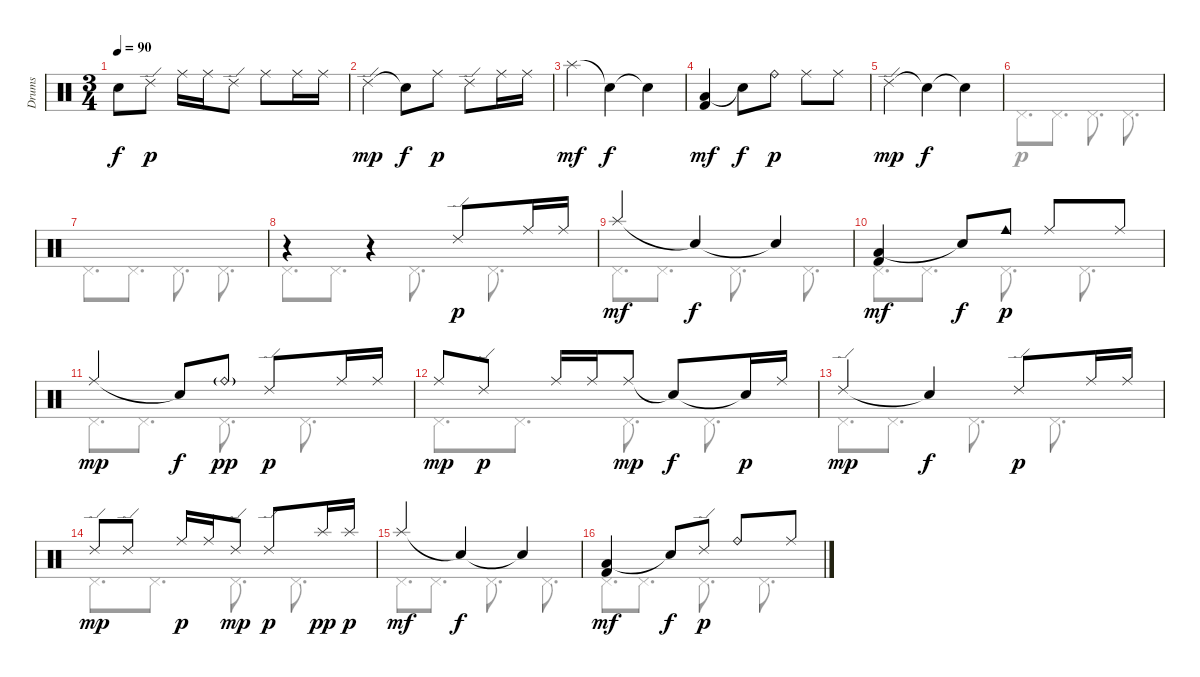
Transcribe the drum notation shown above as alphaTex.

\track ("Drums" "Drums") {instrument percussion}
\staff {score}
\articulation defaults
\voice
\ts (3 4)
\tempo 90
\clef neutral
\ks c "Snare (hit)"{t}.8{dy f} "Ride (edge) 2".8{dy p} "Ride (middle)".16 "Ride (middle)".16 "Ride (edge) 2".8 "Ride (middle)".8 "Ride (middle)".16 "Ride (middle)".16
|
"Ride (edge) 2".4{dy mp} "Snare (hit)"{t}.8{dy f} "Ride (middle)".8{dy p} "Ride (edge) 2".8 "Ride (middle)".16 "Ride (middle)".16 |
"Splash (hit)".4{dy mf} "Snare (hit)"{t}.4{dy f} "Snare (hit)"{t}.4 |
("Low Tom (hit)" "Kick (hit) 2").4{dy mf} "Snare (hit)"{t}.8{dy f} "Ride (bell)".8{dy p} "Ride (middle)".8 "Ride (middle)".8 |
"Ride (edge) 2".4{dy mp} "Snare (hit)"{t}.4{dy f} "Snare (hit)"{t}.4 |
|
|
r.4 r.4 "Ride (edge) 2".8{dy p} "Ride (middle)".16 "Ride (middle)".16 |
"Splash (hit)".4{dy mf} "Snare (hit)"{t}.4{dy f} "Snare (hit)"{t}.4 |
("Low Tom (hit)" "Kick (hit) 2").4{dy mf} "Snare (hit)"{t}.8{dy f} "Cowbell medium (hit)".8{dy p} "Ride (middle)".8 "Ride (middle)".8 |
"Ride (middle)".4{dy mp} "Snare (hit)"{t}.8{dy f} "Ride (bell)"{g}.8{dy pp} "Ride (edge) 2".8{dy p} "Ride (middle)".16 "Ride (middle)".16 |
"Ride (middle)".8{dy mp} "Ride (edge) 2".8{dy p} "Ride (middle)".16 "Ride (middle)".16 "Ride (middle)".8{dy mp} "Snare (hit)"{t}.8{dy f} "Snare (hit)"{t}.16{dy p} "Ride (middle)".16 |
"Ride (edge) 2".4{dy mp} "Snare (hit)"{t}.4{dy f} "Ride (edge) 2".8{dy p} "Ride (middle)".16 "Ride (middle)".16 |
"Ride (edge) 2".8{dy mp} "Ride (edge) 2".8 "Ride (middle)".16{dy p} "Ride (middle)".16 "Ride (edge) 2".8{dy mp} "Ride (edge) 2".8{dy p} "Splash (hit)".16{dy pp} "Splash (hit)".16{dy p} |
"Splash (hit)".4{dy mf} "Snare (hit)"{t}.4{dy f} "Snare (hit)"{t}.4 |
("Low Tom (hit)" "Kick (hit) 2").4{dy mf} "Snare (hit)"{t}.8{dy f} "Ride (edge) 2".8{dy p} "Ride (bell)".8 "Ride (middle)".8
\voice
\clef neutral
\ottava regular
\simile none
\ks c
|
|
|
|
|
"Pedal Hi-Hat (hit)".8{d} "Pedal Hi-Hat (hit)".8{d} "Pedal Hi-Hat (hit)".8{d} "Pedal Hi-Hat (hit)".8{d} |
"Pedal Hi-Hat (hit)".8{d} "Pedal Hi-Hat (hit)".8{d} "Pedal Hi-Hat (hit)".8{d} "Pedal Hi-Hat (hit)".8{d} |
"Pedal Hi-Hat (hit)".8{d} "Pedal Hi-Hat (hit)".8{d} "Pedal Hi-Hat (hit)".8{d} "Pedal Hi-Hat (hit)".8{d} |
"Pedal Hi-Hat (hit)".8{d} "Pedal Hi-Hat (hit)".8{d} "Pedal Hi-Hat (hit)".8{d} "Pedal Hi-Hat (hit)".8{d} |
"Pedal Hi-Hat (hit)".8{d} "Pedal Hi-Hat (hit)".8{d} "Pedal Hi-Hat (hit)".8{d} "Pedal Hi-Hat (hit)".8{d} |
"Pedal Hi-Hat (hit)".8{d} "Pedal Hi-Hat (hit)".8{d} "Pedal Hi-Hat (hit)".8{d} "Pedal Hi-Hat (hit)".8{d} |
"Pedal Hi-Hat (hit)".8{d} "Pedal Hi-Hat (hit)".8{d} "Pedal Hi-Hat (hit)".8{d} "Pedal Hi-Hat (hit)".8{d} |
"Pedal Hi-Hat (hit)".8{d} "Pedal Hi-Hat (hit)".8{d} "Pedal Hi-Hat (hit)".8{d} "Pedal Hi-Hat (hit)".8{d} |
"Pedal Hi-Hat (hit)".8{d} "Pedal Hi-Hat (hit)".8{d} "Pedal Hi-Hat (hit)".8{d} "Pedal Hi-Hat (hit)".8{d} |
"Pedal Hi-Hat (hit)".8{d} "Pedal Hi-Hat (hit)".8{d} "Pedal Hi-Hat (hit)".8{d} "Pedal Hi-Hat (hit)".8{d} |
"Pedal Hi-Hat (hit)".8{d} "Pedal Hi-Hat (hit)".8{d} "Pedal Hi-Hat (hit)".8{d} "Pedal Hi-Hat (hit)".8{d}
